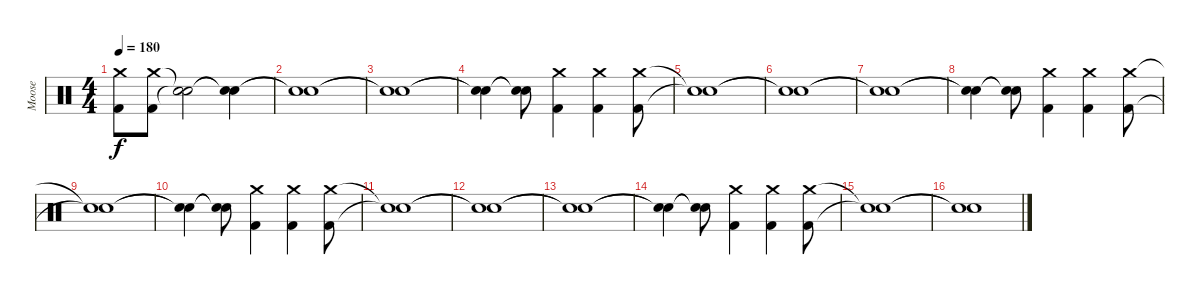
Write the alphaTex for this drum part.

\track ("Moose" "Moose") {instrument percussion}
\staff {score}
\articulation defaults
\ts (4 4)
\tempo 180
\clef neutral
\ks c
("Crash medium (hit)" "Kick (hit) 2").8{dy f} ("Crash medium (hit)" "Kick (hit) 2").8 ("Snare (hit)"{t} "Snare (hit)"{t}).2 ("Snare (hit)"{t} "Snare (hit)"{t}).4 |
("Snare (hit)"{t} "Snare (hit)"{t}).1 |
("Snare (hit)"{t} "Snare (hit)"{t}).1 |
("Snare (hit)"{t} "Snare (hit)"{t}).4 ("Snare (hit)"{t} "Snare (hit)"{t}).8 ("Crash medium (hit)" "Kick (hit) 2").4 ("Crash medium (hit)" "Kick (hit) 2").4 ("Crash medium (hit)" "Kick (hit) 2").8 |
("Snare (hit)"{t} "Snare (hit)"{t}).1 |
("Snare (hit)"{t} "Snare (hit)"{t}).1 |
("Snare (hit)"{t} "Snare (hit)"{t}).1 |
("Snare (hit)"{t} "Snare (hit)"{t}).4 ("Snare (hit)"{t} "Snare (hit)"{t}).8 ("Crash medium (hit)" "Kick (hit) 2").4 ("Crash medium (hit)" "Kick (hit) 2").4 ("Crash medium (hit)" "Kick (hit) 2").8 |
("Snare (hit)"{t} "Snare (hit)"{t}).1 |
("Snare (hit)"{t} "Snare (hit)"{t}).4 ("Snare (hit)"{t} "Snare (hit)"{t}).8 ("Crash medium (hit)" "Kick (hit) 2").4 ("Crash medium (hit)" "Kick (hit) 2").4 ("Crash medium (hit)" "Kick (hit) 2").8 |
("Snare (hit)"{t} "Snare (hit)"{t}).1 |
("Snare (hit)"{t} "Snare (hit)"{t}).1 |
("Snare (hit)"{t} "Snare (hit)"{t}).1 |
("Snare (hit)"{t} "Snare (hit)"{t}).4 ("Snare (hit)"{t} "Snare (hit)"{t}).8 ("Crash medium (hit)" "Kick (hit) 2").4 ("Crash medium (hit)" "Kick (hit) 2").4 ("Crash medium (hit)" "Kick (hit) 2").8 |
("Snare (hit)"{t} "Snare (hit)"{t}).1 |
("Snare (hit)"{t} "Snare (hit)"{t}).1
